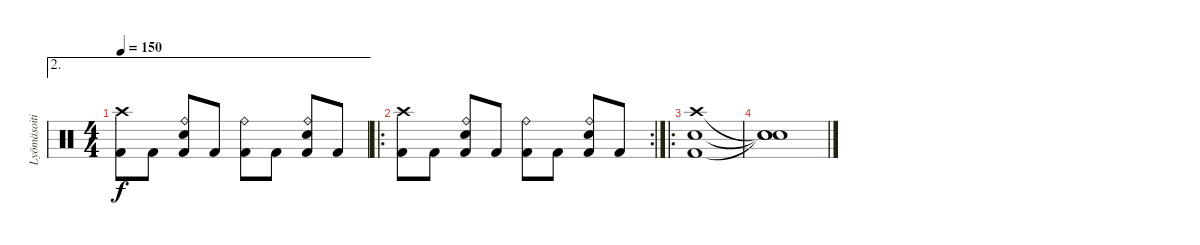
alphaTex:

\track ("Lyömäsoitin" "Lyömäsoiti") {instrument percussion}
\staff {score}
\articulation defaults
\ae 2
\ts (4 4)
\tempo 150
\clef neutral
\ks c
("Kick (hit) 2" "Crash high (hit)").8{dy f} "Kick (hit) 2".8 ("Kick (hit) 2" "Ride (bell)" "Electric Snare (hit)").8 "Kick (hit) 2".8 ("Kick (hit) 2" "Ride (bell)").8 "Kick (hit) 2".8 ("Kick (hit) 2" "Ride (bell)" "Electric Snare (hit)").8 "Kick (hit) 2".8 |
\ro
\rc 2
("Kick (hit) 2" "Crash high (hit)").8 "Kick (hit) 2".8 ("Kick (hit) 2" "Ride (bell)" "Electric Snare (hit)").8 "Kick (hit) 2".8 ("Kick (hit) 2" "Ride (bell)").8 "Kick (hit) 2".8 ("Kick (hit) 2" "Ride (bell)" "Electric Snare (hit)").8 "Kick (hit) 2".8 |
\ro
("Kick (hit) 2" "Crash high (hit)" "Electric Snare (hit)").1 |
("Snare (hit)"{t} "Snare (hit)"{t} "Snare (hit)"{t}).1
